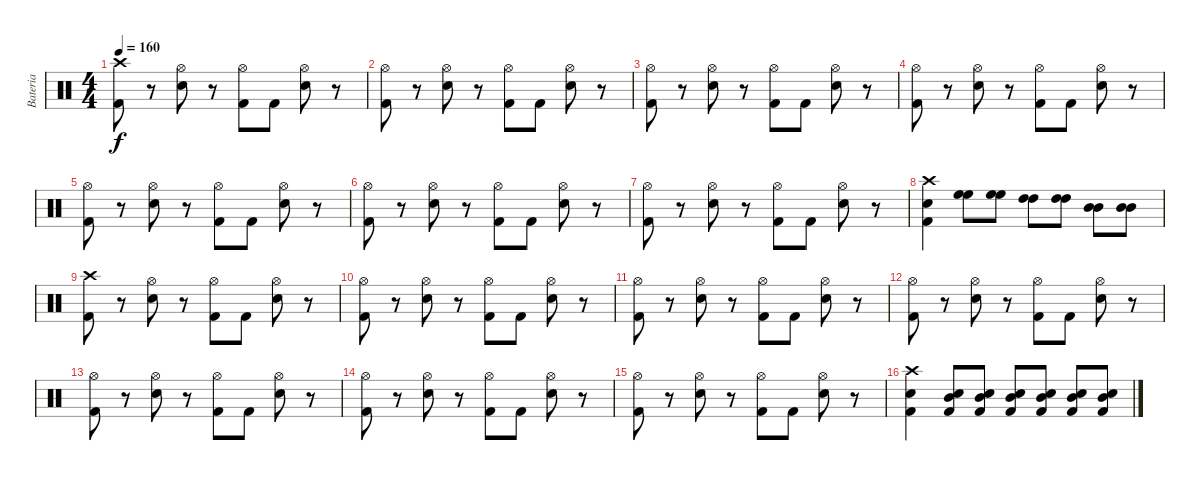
\track ("Bateria" "Bateria") {instrument percussion}
\staff {score}
\articulation defaults
\ts (4 4)
\tempo 160
\clef neutral
\ks c
("Crash high (hit)" "Kick (hit) 2").8{dy f} r.8 ("Hi-Hat (open)" "Electric Snare (hit)").8 r.8 ("Hi-Hat (open)" "Kick (hit) 2").8 "Kick (hit) 2".8 ("Hi-Hat (open)" "Electric Snare (hit)").8 r.8 |
("Hi-Hat (open)" "Kick (hit) 2").8 r.8 ("Hi-Hat (open)" "Electric Snare (hit)").8 r.8 ("Hi-Hat (open)" "Kick (hit) 2").8 "Kick (hit) 2".8 ("Hi-Hat (open)" "Electric Snare (hit)").8 r.8 |
("Hi-Hat (open)" "Kick (hit) 2").8 r.8 ("Hi-Hat (open)" "Electric Snare (hit)").8 r.8 ("Hi-Hat (open)" "Kick (hit) 2").8 "Kick (hit) 2".8 ("Hi-Hat (open)" "Electric Snare (hit)").8 r.8 |
("Hi-Hat (open)" "Kick (hit) 2").8 r.8 ("Hi-Hat (open)" "Electric Snare (hit)").8 r.8 ("Hi-Hat (open)" "Kick (hit) 2").8 "Kick (hit) 2".8 ("Hi-Hat (open)" "Electric Snare (hit)").8 r.8 |
("Hi-Hat (open)" "Kick (hit) 2").8 r.8 ("Hi-Hat (open)" "Electric Snare (hit)").8 r.8 ("Hi-Hat (open)" "Kick (hit) 2").8 "Kick (hit) 2".8 ("Hi-Hat (open)" "Electric Snare (hit)").8 r.8 |
("Hi-Hat (open)" "Kick (hit) 2").8 r.8 ("Hi-Hat (open)" "Electric Snare (hit)").8 r.8 ("Hi-Hat (open)" "Kick (hit) 2").8 "Kick (hit) 2".8 ("Hi-Hat (open)" "Electric Snare (hit)").8 r.8 |
("Hi-Hat (open)" "Kick (hit) 2").8 r.8 ("Hi-Hat (open)" "Electric Snare (hit)").8 r.8 ("Hi-Hat (open)" "Kick (hit) 2").8 "Kick (hit) 2".8 ("Hi-Hat (open)" "Electric Snare (hit)").8 r.8 |
("Crash high (hit)" "Electric Snare (hit)" "Kick (hit) 2").4 ("High Floor Tom (hit)" "High Floor Tom (hit)").8 ("High Floor Tom (hit)" "High Floor Tom (hit)").8 ("High Tom (hit)" "High Tom (hit)").8 ("High Tom (hit)" "High Tom (hit)").8 ("Mid Tom (hit)" "Mid Tom (hit)").8 ("Mid Tom (hit)" "Mid Tom (hit)").8 |
("Crash high (hit)" "Kick (hit) 2").8 r.8 ("Hi-Hat (open)" "Electric Snare (hit)").8 r.8 ("Hi-Hat (open)" "Kick (hit) 2").8 "Kick (hit) 2".8 ("Hi-Hat (open)" "Electric Snare (hit)").8 r.8 |
("Hi-Hat (open)" "Kick (hit) 2").8 r.8 ("Hi-Hat (open)" "Electric Snare (hit)").8 r.8 ("Hi-Hat (open)" "Kick (hit) 2").8 "Kick (hit) 2".8 ("Hi-Hat (open)" "Electric Snare (hit)").8 r.8 |
("Hi-Hat (open)" "Kick (hit) 2").8 r.8 ("Hi-Hat (open)" "Electric Snare (hit)").8 r.8 ("Hi-Hat (open)" "Kick (hit) 2").8 "Kick (hit) 2".8 ("Hi-Hat (open)" "Electric Snare (hit)").8 r.8 |
("Hi-Hat (open)" "Kick (hit) 2").8 r.8 ("Hi-Hat (open)" "Electric Snare (hit)").8 r.8 ("Hi-Hat (open)" "Kick (hit) 2").8 "Kick (hit) 2".8 ("Hi-Hat (open)" "Electric Snare (hit)").8 r.8 |
("Hi-Hat (open)" "Kick (hit) 2").8 r.8 ("Hi-Hat (open)" "Electric Snare (hit)").8 r.8 ("Hi-Hat (open)" "Kick (hit) 2").8 "Kick (hit) 2".8 ("Hi-Hat (open)" "Electric Snare (hit)").8 r.8 |
("Hi-Hat (open)" "Kick (hit) 2").8 r.8 ("Hi-Hat (open)" "Electric Snare (hit)").8 r.8 ("Hi-Hat (open)" "Kick (hit) 2").8 "Kick (hit) 2".8 ("Hi-Hat (open)" "Electric Snare (hit)").8 r.8 |
("Hi-Hat (open)" "Kick (hit) 2").8 r.8 ("Hi-Hat (open)" "Electric Snare (hit)").8 r.8 ("Hi-Hat (open)" "Kick (hit) 2").8 "Kick (hit) 2".8 ("Hi-Hat (open)" "Electric Snare (hit)").8 r.8 |
("Crash high (hit)" "Electric Snare (hit)" "Kick (hit) 2").4 ("Mid Tom (hit)" "Kick (hit) 2" "Electric Snare (hit)").8 ("Mid Tom (hit)" "Kick (hit) 2" "Electric Snare (hit)").8 ("Mid Tom (hit)" "Kick (hit) 2" "Electric Snare (hit)").8 ("Mid Tom (hit)" "Kick (hit) 2" "Electric Snare (hit)").8 ("Mid Tom (hit)" "Kick (hit) 2" "Electric Snare (hit)").8 ("Mid Tom (hit)" "Kick (hit) 2" "Electric Snare (hit)").8
